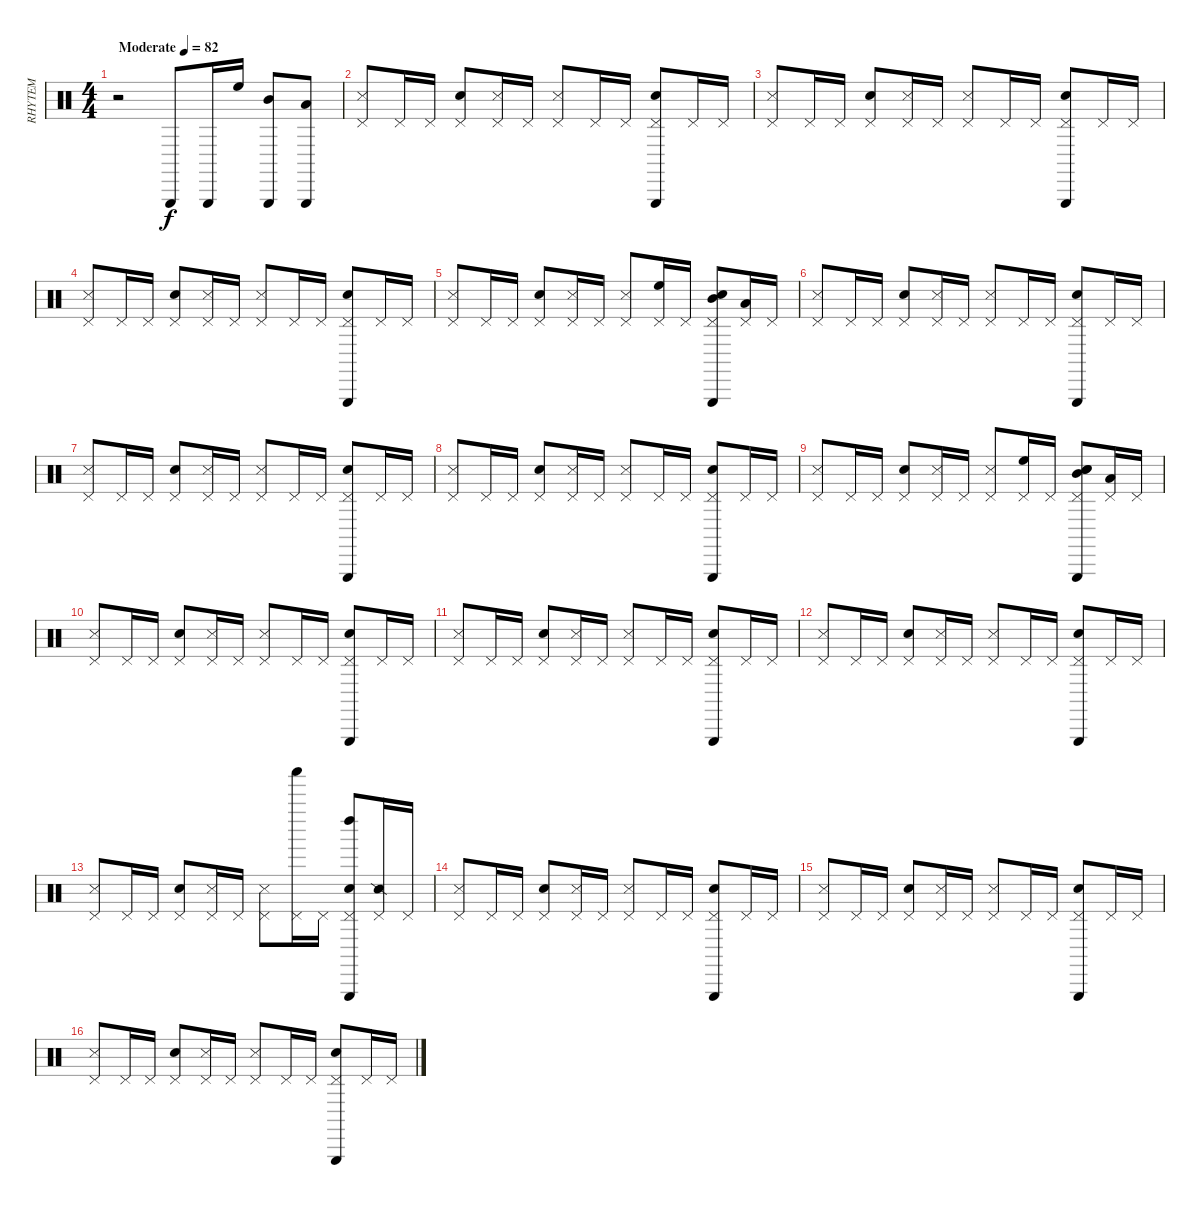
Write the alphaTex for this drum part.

\track ("RHYTEM" "RHYTEM") {instrument percussion}
\staff {score}
\articulation defaults
\ts (4 4)
\tempo (82 "Moderate")
\clef neutral
\ks c
r.2{dy f} "Triangle (hit)".8 "Triangle (hit)".16 "High Floor Tom (hit)".16 ("Triangle (hit)" "Mid Tom (hit)").8 ("Triangle (hit)" "Low Tom (hit)").8 |
("Pedal Hi-Hat (hit)" "Metronome (hit)").8 "Pedal Hi-Hat (hit)".16 "Pedal Hi-Hat (hit)".16 ("Electric Snare (hit)" "Pedal Hi-Hat (hit)").8 ("Pedal Hi-Hat (hit)" "Metronome (hit)").16 "Pedal Hi-Hat (hit)".16 ("Pedal Hi-Hat (hit)" "Metronome (hit)").8 "Pedal Hi-Hat (hit)".16 "Pedal Hi-Hat (hit)".16 ("Triangle (hit)" "Electric Snare (hit)" "Pedal Hi-Hat (hit)").8 "Pedal Hi-Hat (hit)".16 "Pedal Hi-Hat (hit)".16 |
("Pedal Hi-Hat (hit)" "Metronome (hit)").8 "Pedal Hi-Hat (hit)".16 "Pedal Hi-Hat (hit)".16 ("Electric Snare (hit)" "Pedal Hi-Hat (hit)").8 ("Pedal Hi-Hat (hit)" "Metronome (hit)").16 "Pedal Hi-Hat (hit)".16 ("Pedal Hi-Hat (hit)" "Metronome (hit)").8 "Pedal Hi-Hat (hit)".16 "Pedal Hi-Hat (hit)".16 ("Triangle (hit)" "Electric Snare (hit)" "Pedal Hi-Hat (hit)").8 "Pedal Hi-Hat (hit)".16 "Pedal Hi-Hat (hit)".16 |
("Pedal Hi-Hat (hit)" "Metronome (hit)").8 "Pedal Hi-Hat (hit)".16 "Pedal Hi-Hat (hit)".16 ("Electric Snare (hit)" "Pedal Hi-Hat (hit)").8 ("Pedal Hi-Hat (hit)" "Metronome (hit)").16 "Pedal Hi-Hat (hit)".16 ("Pedal Hi-Hat (hit)" "Metronome (hit)").8 "Pedal Hi-Hat (hit)".16 "Pedal Hi-Hat (hit)".16 ("Triangle (hit)" "Electric Snare (hit)" "Pedal Hi-Hat (hit)").8 "Pedal Hi-Hat (hit)".16 "Pedal Hi-Hat (hit)".16 |
("Pedal Hi-Hat (hit)" "Metronome (hit)").8 "Pedal Hi-Hat (hit)".16 "Pedal Hi-Hat (hit)".16 ("Electric Snare (hit)" "Pedal Hi-Hat (hit)").8 ("Pedal Hi-Hat (hit)" "Metronome (hit)").16 "Pedal Hi-Hat (hit)".16 ("Pedal Hi-Hat (hit)" "Metronome (hit)").8 ("High Floor Tom (hit)" "Pedal Hi-Hat (hit)").16 "Pedal Hi-Hat (hit)".16 ("Mid Tom (hit)" "Triangle (hit)" "Electric Snare (hit)" "Pedal Hi-Hat (hit)").8 ("Low Tom (hit)" "Pedal Hi-Hat (hit)").16 "Pedal Hi-Hat (hit)".16 |
("Pedal Hi-Hat (hit)" "Metronome (hit)").8 "Pedal Hi-Hat (hit)".16 "Pedal Hi-Hat (hit)".16 ("Electric Snare (hit)" "Pedal Hi-Hat (hit)").8 ("Pedal Hi-Hat (hit)" "Metronome (hit)").16 "Pedal Hi-Hat (hit)".16 ("Pedal Hi-Hat (hit)" "Metronome (hit)").8 "Pedal Hi-Hat (hit)".16 "Pedal Hi-Hat (hit)".16 ("Triangle (hit)" "Electric Snare (hit)" "Pedal Hi-Hat (hit)").8 "Pedal Hi-Hat (hit)".16 "Pedal Hi-Hat (hit)".16 |
("Pedal Hi-Hat (hit)" "Metronome (hit)").8 "Pedal Hi-Hat (hit)".16 "Pedal Hi-Hat (hit)".16 ("Electric Snare (hit)" "Pedal Hi-Hat (hit)").8 ("Pedal Hi-Hat (hit)" "Metronome (hit)").16 "Pedal Hi-Hat (hit)".16 ("Pedal Hi-Hat (hit)" "Metronome (hit)").8 "Pedal Hi-Hat (hit)".16 "Pedal Hi-Hat (hit)".16 ("Triangle (hit)" "Electric Snare (hit)" "Pedal Hi-Hat (hit)").8 "Pedal Hi-Hat (hit)".16 "Pedal Hi-Hat (hit)".16 |
("Pedal Hi-Hat (hit)" "Metronome (hit)").8 "Pedal Hi-Hat (hit)".16 "Pedal Hi-Hat (hit)".16 ("Electric Snare (hit)" "Pedal Hi-Hat (hit)").8 ("Pedal Hi-Hat (hit)" "Metronome (hit)").16 "Pedal Hi-Hat (hit)".16 ("Pedal Hi-Hat (hit)" "Metronome (hit)").8 "Pedal Hi-Hat (hit)".16 "Pedal Hi-Hat (hit)".16 ("Triangle (hit)" "Electric Snare (hit)" "Pedal Hi-Hat (hit)").8 "Pedal Hi-Hat (hit)".16 "Pedal Hi-Hat (hit)".16 |
("Pedal Hi-Hat (hit)" "Metronome (hit)").8 "Pedal Hi-Hat (hit)".16 "Pedal Hi-Hat (hit)".16 ("Electric Snare (hit)" "Pedal Hi-Hat (hit)").8 ("Pedal Hi-Hat (hit)" "Metronome (hit)").16 "Pedal Hi-Hat (hit)".16 ("Pedal Hi-Hat (hit)" "Metronome (hit)").8 ("High Floor Tom (hit)" "Pedal Hi-Hat (hit)").16 "Pedal Hi-Hat (hit)".16 ("Snare (hit)" "Mid Tom (hit)" "Triangle (hit)" "Electric Snare (hit)" "Pedal Hi-Hat (hit)").8 ("Low Tom (hit)" "Pedal Hi-Hat (hit)").16 "Pedal Hi-Hat (hit)".16 |
("Pedal Hi-Hat (hit)" "Metronome (hit)").8 "Pedal Hi-Hat (hit)".16 "Pedal Hi-Hat (hit)".16 ("Electric Snare (hit)" "Pedal Hi-Hat (hit)").8 ("Pedal Hi-Hat (hit)" "Metronome (hit)").16 "Pedal Hi-Hat (hit)".16 ("Pedal Hi-Hat (hit)" "Metronome (hit)").8 "Pedal Hi-Hat (hit)".16 "Pedal Hi-Hat (hit)".16 ("Triangle (hit)" "Electric Snare (hit)" "Pedal Hi-Hat (hit)").8 "Pedal Hi-Hat (hit)".16 "Pedal Hi-Hat (hit)".16 |
("Pedal Hi-Hat (hit)" "Metronome (hit)").8 "Pedal Hi-Hat (hit)".16 "Pedal Hi-Hat (hit)".16 ("Electric Snare (hit)" "Pedal Hi-Hat (hit)").8 ("Pedal Hi-Hat (hit)" "Metronome (hit)").16 "Pedal Hi-Hat (hit)".16 ("Pedal Hi-Hat (hit)" "Metronome (hit)").8 "Pedal Hi-Hat (hit)".16 "Pedal Hi-Hat (hit)".16 ("Triangle (hit)" "Electric Snare (hit)" "Pedal Hi-Hat (hit)").8 "Pedal Hi-Hat (hit)".16 "Pedal Hi-Hat (hit)".16 |
("Pedal Hi-Hat (hit)" "Metronome (hit)").8 "Pedal Hi-Hat (hit)".16 "Pedal Hi-Hat (hit)".16 ("Electric Snare (hit)" "Pedal Hi-Hat (hit)").8 ("Pedal Hi-Hat (hit)" "Metronome (hit)").16 "Pedal Hi-Hat (hit)".16 ("Pedal Hi-Hat (hit)" "Metronome (hit)").8 "Pedal Hi-Hat (hit)".16 "Pedal Hi-Hat (hit)".16 ("Triangle (hit)" "Electric Snare (hit)" "Pedal Hi-Hat (hit)").8 "Pedal Hi-Hat (hit)".16 "Pedal Hi-Hat (hit)".16 |
("Pedal Hi-Hat (hit)" "Metronome (hit)").8 "Pedal Hi-Hat (hit)".16 "Pedal Hi-Hat (hit)".16 ("Electric Snare (hit)" "Pedal Hi-Hat (hit)").8 ("Pedal Hi-Hat (hit)" "Metronome (hit)").16 "Pedal Hi-Hat (hit)".16 ("Pedal Hi-Hat (hit)" "Metronome (hit)").8 ("Shaker (hit)" "Pedal Hi-Hat (hit)").16 "Pedal Hi-Hat (hit)".16 ("Left Maraca (hit)" "Triangle (hit)" "Electric Snare (hit)" "Pedal Hi-Hat (hit)").8 ("Snare (side stick) 2" "Pedal Hi-Hat (hit)").16 "Pedal Hi-Hat (hit)".16 |
("Pedal Hi-Hat (hit)" "Metronome (hit)").8 "Pedal Hi-Hat (hit)".16 "Pedal Hi-Hat (hit)".16 ("Electric Snare (hit)" "Pedal Hi-Hat (hit)").8 ("Pedal Hi-Hat (hit)" "Metronome (hit)").16 "Pedal Hi-Hat (hit)".16 ("Pedal Hi-Hat (hit)" "Metronome (hit)").8 "Pedal Hi-Hat (hit)".16 "Pedal Hi-Hat (hit)".16 ("Triangle (hit)" "Electric Snare (hit)" "Pedal Hi-Hat (hit)").8 "Pedal Hi-Hat (hit)".16 "Pedal Hi-Hat (hit)".16 |
("Pedal Hi-Hat (hit)" "Metronome (hit)").8 "Pedal Hi-Hat (hit)".16 "Pedal Hi-Hat (hit)".16 ("Electric Snare (hit)" "Pedal Hi-Hat (hit)").8 ("Pedal Hi-Hat (hit)" "Metronome (hit)").16 "Pedal Hi-Hat (hit)".16 ("Pedal Hi-Hat (hit)" "Metronome (hit)").8 "Pedal Hi-Hat (hit)".16 "Pedal Hi-Hat (hit)".16 ("Triangle (hit)" "Electric Snare (hit)" "Pedal Hi-Hat (hit)").8 "Pedal Hi-Hat (hit)".16 "Pedal Hi-Hat (hit)".16 |
("Pedal Hi-Hat (hit)" "Metronome (hit)").8 "Pedal Hi-Hat (hit)".16 "Pedal Hi-Hat (hit)".16 ("Electric Snare (hit)" "Pedal Hi-Hat (hit)").8 ("Pedal Hi-Hat (hit)" "Metronome (hit)").16 "Pedal Hi-Hat (hit)".16 ("Pedal Hi-Hat (hit)" "Metronome (hit)").8 "Pedal Hi-Hat (hit)".16 "Pedal Hi-Hat (hit)".16 ("Triangle (hit)" "Electric Snare (hit)" "Pedal Hi-Hat (hit)").8 "Pedal Hi-Hat (hit)".16 "Pedal Hi-Hat (hit)".16
